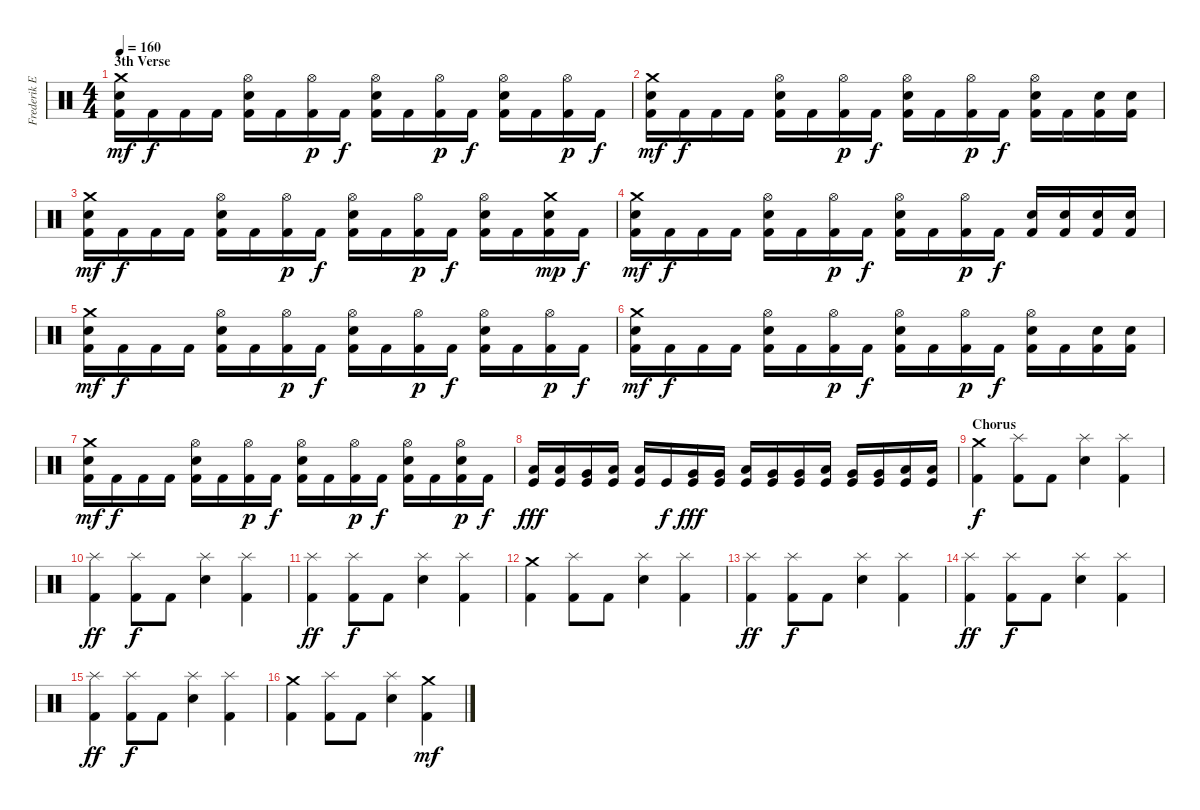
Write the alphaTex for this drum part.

\track ("Frederik Ehmke" "Frederik E") {instrument percussion}
\staff {score}
\articulation defaults
\ts (4 4)
\section ("" "3th Verse")
\tempo 160
\clef neutral
\ks c
("Crash medium (hit)" "Electric Snare (hit)" "Kick (hit) 2").16{dy mf} "Kick (hit) 2".16{dy f} "Kick (hit) 2".16 "Kick (hit) 2".16 ("Hi-Hat (open)" "Electric Snare (hit)" "Kick (hit) 2").16 "Kick (hit) 2".16 ("Hi-Hat (open)" "Kick (hit) 2").16{dy p} "Kick (hit) 2".16{dy f} ("Hi-Hat (open)" "Electric Snare (hit)" "Kick (hit) 2").16 "Kick (hit) 2".16 ("Hi-Hat (open)" "Kick (hit) 2").16{dy p} "Kick (hit) 2".16{dy f} ("Hi-Hat (open)" "Electric Snare (hit)" "Kick (hit) 2").16 "Kick (hit) 2".16 ("Hi-Hat (open)" "Kick (hit) 2").16{dy p} "Kick (hit) 2".16{dy f} |
("Crash medium (hit)" "Electric Snare (hit)" "Kick (hit) 2").16{dy mf} "Kick (hit) 2".16{dy f} "Kick (hit) 2".16 "Kick (hit) 2".16 ("Hi-Hat (open)" "Electric Snare (hit)" "Kick (hit) 2").16 "Kick (hit) 2".16 ("Hi-Hat (open)" "Kick (hit) 2").16{dy p} "Kick (hit) 2".16{dy f} ("Hi-Hat (open)" "Electric Snare (hit)" "Kick (hit) 2").16 "Kick (hit) 2".16 ("Hi-Hat (open)" "Kick (hit) 2").16{dy p} "Kick (hit) 2".16{dy f} ("Hi-Hat (open)" "Electric Snare (hit)" "Kick (hit) 2").16 "Kick (hit) 2".16 ("Electric Snare (hit)" "Kick (hit) 2").16 ("Electric Snare (hit)" "Kick (hit) 2").16 |
("Crash medium (hit)" "Electric Snare (hit)" "Kick (hit) 2").16{dy mf} "Kick (hit) 2".16{dy f} "Kick (hit) 2".16 "Kick (hit) 2".16 ("Hi-Hat (open)" "Electric Snare (hit)" "Kick (hit) 2").16 "Kick (hit) 2".16 ("Hi-Hat (open)" "Kick (hit) 2").16{dy p} "Kick (hit) 2".16{dy f} ("Hi-Hat (open)" "Electric Snare (hit)" "Kick (hit) 2").16 "Kick (hit) 2".16 ("Hi-Hat (open)" "Kick (hit) 2").16{dy p} "Kick (hit) 2".16{dy f} ("Hi-Hat (open)" "Electric Snare (hit)" "Kick (hit) 2").16 "Kick (hit) 2".16 ("Crash medium (hit)" "Electric Snare (hit)" "Kick (hit) 2").16{dy mp} "Kick (hit) 2".16{dy f} |
("Crash medium (hit)" "Electric Snare (hit)" "Kick (hit) 2").16{dy mf} "Kick (hit) 2".16{dy f} "Kick (hit) 2".16 "Kick (hit) 2".16 ("Hi-Hat (open)" "Electric Snare (hit)" "Kick (hit) 2").16 "Kick (hit) 2".16 ("Hi-Hat (open)" "Kick (hit) 2").16{dy p} "Kick (hit) 2".16{dy f} ("Hi-Hat (open)" "Electric Snare (hit)" "Kick (hit) 2").16 "Kick (hit) 2".16 ("Hi-Hat (open)" "Kick (hit) 2").16{dy p} "Kick (hit) 2".16{dy f} ("Electric Snare (hit)" "Kick (hit) 2").16 ("Electric Snare (hit)" "Kick (hit) 2").16 ("Electric Snare (hit)" "Kick (hit) 2").16 ("Electric Snare (hit)" "Kick (hit) 2").16 |
("Crash medium (hit)" "Electric Snare (hit)" "Kick (hit) 2").16{dy mf} "Kick (hit) 2".16{dy f} "Kick (hit) 2".16 "Kick (hit) 2".16 ("Hi-Hat (open)" "Electric Snare (hit)" "Kick (hit) 2").16 "Kick (hit) 2".16 ("Hi-Hat (open)" "Kick (hit) 2").16{dy p} "Kick (hit) 2".16{dy f} ("Hi-Hat (open)" "Electric Snare (hit)" "Kick (hit) 2").16 "Kick (hit) 2".16 ("Hi-Hat (open)" "Kick (hit) 2").16{dy p} "Kick (hit) 2".16{dy f} ("Hi-Hat (open)" "Electric Snare (hit)" "Kick (hit) 2").16 "Kick (hit) 2".16 ("Hi-Hat (open)" "Kick (hit) 2").16{dy p} "Kick (hit) 2".16{dy f} |
("Crash medium (hit)" "Electric Snare (hit)" "Kick (hit) 2").16{dy mf} "Kick (hit) 2".16{dy f} "Kick (hit) 2".16 "Kick (hit) 2".16 ("Hi-Hat (open)" "Electric Snare (hit)" "Kick (hit) 2").16 "Kick (hit) 2".16 ("Hi-Hat (open)" "Kick (hit) 2").16{dy p} "Kick (hit) 2".16{dy f} ("Hi-Hat (open)" "Electric Snare (hit)" "Kick (hit) 2").16 "Kick (hit) 2".16 ("Hi-Hat (open)" "Kick (hit) 2").16{dy p} "Kick (hit) 2".16{dy f} ("Hi-Hat (open)" "Electric Snare (hit)" "Kick (hit) 2").16 "Kick (hit) 2".16 ("Electric Snare (hit)" "Kick (hit) 2").16 ("Electric Snare (hit)" "Kick (hit) 2").16 |
("Crash medium (hit)" "Electric Snare (hit)" "Kick (hit) 2").16{dy mf} "Kick (hit) 2".16{dy f} "Kick (hit) 2".16 "Kick (hit) 2".16 ("Hi-Hat (open)" "Electric Snare (hit)" "Kick (hit) 2").16 "Kick (hit) 2".16 ("Hi-Hat (open)" "Kick (hit) 2").16{dy p} "Kick (hit) 2".16{dy f} ("Hi-Hat (open)" "Electric Snare (hit)" "Kick (hit) 2").16 "Kick (hit) 2".16 ("Hi-Hat (open)" "Kick (hit) 2").16{dy p} "Kick (hit) 2".16{dy f} ("Hi-Hat (open)" "Electric Snare (hit)" "Kick (hit) 2").16 "Kick (hit) 2".16 ("Hi-Hat (open)" "Electric Snare (hit)" "Kick (hit) 2").16{dy p} "Kick (hit) 2".16{dy f} |
("Low Tom (hit)" "Kick (hit)").16{dy fff} ("Low Tom (hit)" "Kick (hit)").16 ("Very Low Tom (hit)" "Kick (hit)").16 ("Low Floor Tom (hit)" "Kick (hit)").16 ("Low Tom (hit)" "Kick (hit)").16 "Kick (hit)".16{dy f} ("Very Low Tom (hit)" "Kick (hit)").16{dy fff} ("Very Low Tom (hit)" "Kick (hit)").16 ("Low Floor Tom (hit)" "Kick (hit)").16 ("Very Low Tom (hit)" "Kick (hit)").16 ("Very Low Tom (hit)" "Kick (hit)").16 ("Low Floor Tom (hit)" "Kick (hit)").16 ("Very Low Tom (hit)" "Kick (hit)").16 ("Very Low Tom (hit)" "Kick (hit)").16 ("Low Floor Tom (hit)" "Kick (hit)").16 ("Low Floor Tom (hit)" "Kick (hit)").16 |
\section ("" "Chorus")
("Crash medium (hit)" "Kick (hit) 2").4{dy f} ("Splash (hit)" "Kick (hit) 2").8 "Kick (hit) 2".8 ("Splash (hit)" "Electric Snare (hit)").4 ("Splash (hit)" "Kick (hit) 2").4 |
("Splash (hit)" "Kick (hit) 2").4{dy ff} ("Splash (hit)" "Kick (hit) 2").8{dy f} "Kick (hit) 2".8 ("Splash (hit)" "Electric Snare (hit)").4 ("Splash (hit)" "Kick (hit) 2").4 |
("Splash (hit)" "Kick (hit) 2").4{dy ff} ("Splash (hit)" "Kick (hit) 2").8{dy f} "Kick (hit) 2".8 ("Splash (hit)" "Electric Snare (hit)").4 ("Splash (hit)" "Kick (hit) 2").4 |
("Crash medium (hit)" "Kick (hit) 2").4 ("Splash (hit)" "Kick (hit) 2").8 "Kick (hit) 2".8 ("Splash (hit)" "Electric Snare (hit)").4 ("Splash (hit)" "Kick (hit) 2").4 |
("Splash (hit)" "Kick (hit) 2").4{dy ff} ("Splash (hit)" "Kick (hit) 2").8{dy f} "Kick (hit) 2".8 ("Splash (hit)" "Electric Snare (hit)").4 ("Splash (hit)" "Kick (hit) 2").4 |
("Splash (hit)" "Kick (hit) 2").4{dy ff} ("Splash (hit)" "Kick (hit) 2").8{dy f} "Kick (hit) 2".8 ("Splash (hit)" "Electric Snare (hit)").4 ("Splash (hit)" "Kick (hit) 2").4 |
("Splash (hit)" "Kick (hit) 2").4{dy ff} ("Splash (hit)" "Kick (hit) 2").8{dy f} "Kick (hit) 2".8 ("Splash (hit)" "Electric Snare (hit)").4 ("Splash (hit)" "Kick (hit) 2").4 |
("Crash medium (hit)" "Kick (hit) 2").4 ("Splash (hit)" "Kick (hit) 2").8 "Kick (hit) 2".8 ("Splash (hit)" "Electric Snare (hit)").4 ("Crash medium (hit)" "Kick (hit) 2").4{dy mf}
